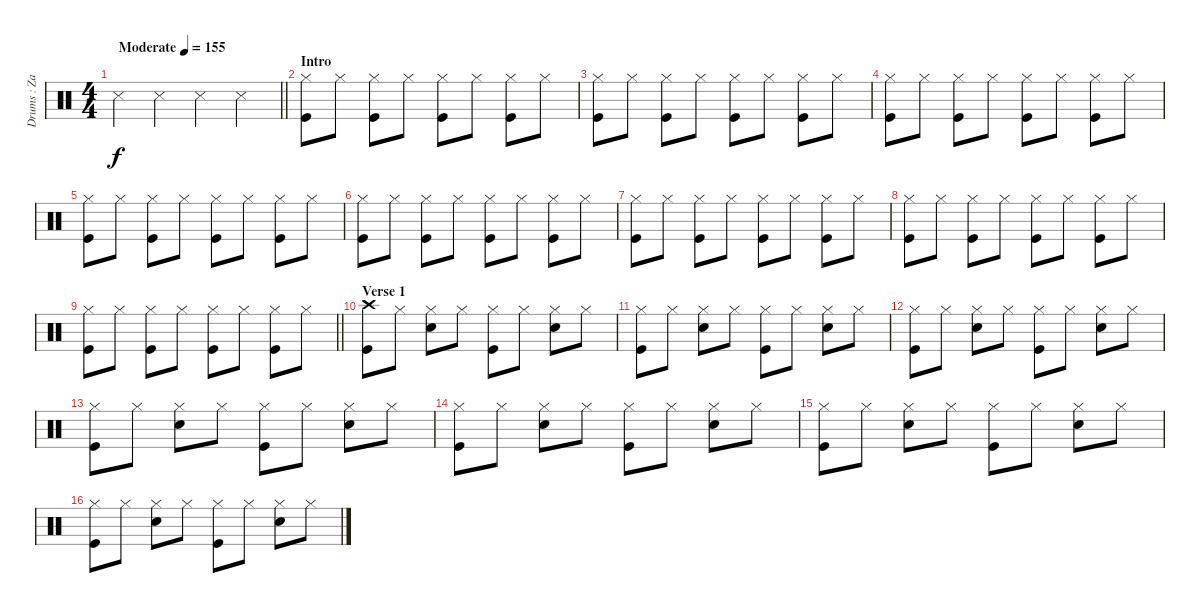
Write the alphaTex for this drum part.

\track ("Drums : Zach Lind" "Drums : Za") {instrument percussion}
\staff {score}
\articulation defaults
\ts (4 4)
\tempo (155 "Moderate")
\clef neutral
\barLineRight lightlight
\ks c "Metronome (hit)".4{dy f} "Metronome (hit)".4 "Metronome (hit)".4 "Metronome (hit)".4
|
\section ("" "Intro")
("Hi-Hat (closed)" "Kick (hit)").8 "Hi-Hat (closed)".8 ("Hi-Hat (closed)" "Kick (hit)").8 "Hi-Hat (closed)".8 ("Hi-Hat (closed)" "Kick (hit)").8 "Hi-Hat (closed)".8 ("Hi-Hat (closed)" "Kick (hit)").8 "Hi-Hat (closed)".8 |
("Hi-Hat (closed)" "Kick (hit)").8 "Hi-Hat (closed)".8 ("Hi-Hat (closed)" "Kick (hit)").8 "Hi-Hat (closed)".8 ("Hi-Hat (closed)" "Kick (hit)").8 "Hi-Hat (closed)".8 ("Hi-Hat (closed)" "Kick (hit)").8 "Hi-Hat (closed)".8 |
("Hi-Hat (closed)" "Kick (hit)").8 "Hi-Hat (closed)".8 ("Hi-Hat (closed)" "Kick (hit)").8 "Hi-Hat (closed)".8 ("Hi-Hat (closed)" "Kick (hit)").8 "Hi-Hat (closed)".8 ("Hi-Hat (closed)" "Kick (hit)").8 "Hi-Hat (closed)".8 |
("Hi-Hat (closed)" "Kick (hit)").8 "Hi-Hat (closed)".8 ("Hi-Hat (closed)" "Kick (hit)").8 "Hi-Hat (closed)".8 ("Hi-Hat (closed)" "Kick (hit)").8 "Hi-Hat (closed)".8 ("Hi-Hat (closed)" "Kick (hit)").8 "Hi-Hat (closed)".8 |
("Hi-Hat (closed)" "Kick (hit)").8 "Hi-Hat (closed)".8 ("Hi-Hat (closed)" "Kick (hit)").8 "Hi-Hat (closed)".8 ("Hi-Hat (closed)" "Kick (hit)").8 "Hi-Hat (closed)".8 ("Hi-Hat (closed)" "Kick (hit)").8 "Hi-Hat (closed)".8 |
("Hi-Hat (closed)" "Kick (hit)").8 "Hi-Hat (closed)".8 ("Hi-Hat (closed)" "Kick (hit)").8 "Hi-Hat (closed)".8 ("Hi-Hat (closed)" "Kick (hit)").8 "Hi-Hat (closed)".8 ("Hi-Hat (closed)" "Kick (hit)").8 "Hi-Hat (closed)".8 |
("Hi-Hat (closed)" "Kick (hit)").8 "Hi-Hat (closed)".8 ("Hi-Hat (closed)" "Kick (hit)").8 "Hi-Hat (closed)".8 ("Hi-Hat (closed)" "Kick (hit)").8 "Hi-Hat (closed)".8 ("Hi-Hat (closed)" "Kick (hit)").8 "Hi-Hat (closed)".8 |
\barLineRight lightlight
("Hi-Hat (closed)" "Kick (hit)").8 "Hi-Hat (closed)".8 ("Hi-Hat (closed)" "Kick (hit)").8 "Hi-Hat (closed)".8 ("Hi-Hat (closed)" "Kick (hit)").8 "Hi-Hat (closed)".8 ("Hi-Hat (closed)" "Kick (hit)").8 "Hi-Hat (closed)".8 |
\section ("" "Verse 1")
("Crash high (hit)" "Kick (hit)").8 "Hi-Hat (closed)".8 ("Hi-Hat (closed)" "Snare (hit) 2").8 "Hi-Hat (closed)".8 ("Hi-Hat (closed)" "Kick (hit)").8 "Hi-Hat (closed)".8 ("Hi-Hat (closed)" "Snare (hit) 2").8 "Hi-Hat (closed)".8 |
("Hi-Hat (closed)" "Kick (hit)").8 "Hi-Hat (closed)".8 ("Hi-Hat (closed)" "Snare (hit) 2").8 "Hi-Hat (closed)".8 ("Hi-Hat (closed)" "Kick (hit)").8 "Hi-Hat (closed)".8 ("Hi-Hat (closed)" "Snare (hit) 2").8 "Hi-Hat (closed)".8 |
("Hi-Hat (closed)" "Kick (hit)").8 "Hi-Hat (closed)".8 ("Hi-Hat (closed)" "Snare (hit) 2").8 "Hi-Hat (closed)".8 ("Hi-Hat (closed)" "Kick (hit)").8 "Hi-Hat (closed)".8 ("Hi-Hat (closed)" "Snare (hit) 2").8 "Hi-Hat (closed)".8 |
("Hi-Hat (closed)" "Kick (hit)").8 "Hi-Hat (closed)".8 ("Hi-Hat (closed)" "Snare (hit) 2").8 "Hi-Hat (closed)".8 ("Hi-Hat (closed)" "Kick (hit)").8 "Hi-Hat (closed)".8 ("Hi-Hat (closed)" "Snare (hit) 2").8 "Hi-Hat (closed)".8 |
("Hi-Hat (closed)" "Kick (hit)").8 "Hi-Hat (closed)".8 ("Hi-Hat (closed)" "Snare (hit) 2").8 "Hi-Hat (closed)".8 ("Hi-Hat (closed)" "Kick (hit)").8 "Hi-Hat (closed)".8 ("Hi-Hat (closed)" "Snare (hit) 2").8 "Hi-Hat (closed)".8 |
("Hi-Hat (closed)" "Kick (hit)").8 "Hi-Hat (closed)".8 ("Hi-Hat (closed)" "Snare (hit) 2").8 "Hi-Hat (closed)".8 ("Hi-Hat (closed)" "Kick (hit)").8 "Hi-Hat (closed)".8 ("Hi-Hat (closed)" "Snare (hit) 2").8 "Hi-Hat (closed)".8 |
("Hi-Hat (closed)" "Kick (hit)").8 "Hi-Hat (closed)".8 ("Hi-Hat (closed)" "Snare (hit) 2").8 "Hi-Hat (closed)".8 ("Hi-Hat (closed)" "Kick (hit)").8 "Hi-Hat (closed)".8 ("Hi-Hat (closed)" "Snare (hit) 2").8 "Hi-Hat (closed)".8
